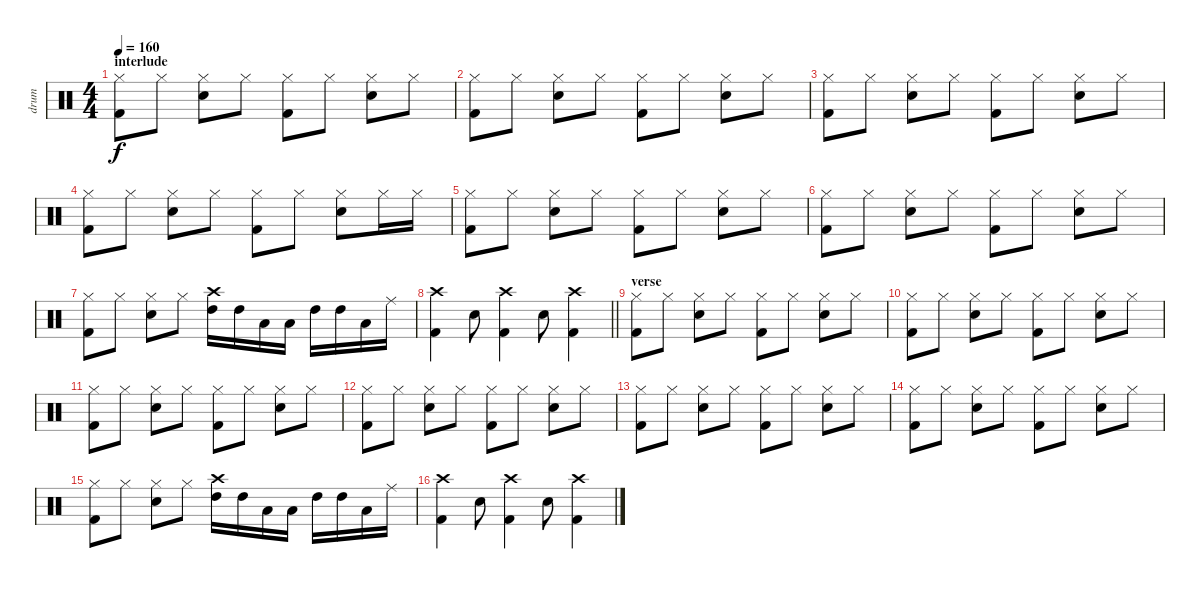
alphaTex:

\track ("drum" "drum") {instrument percussion}
\staff {score}
\articulation defaults
\ts (4 4)
\section ("" "interlude")
\tempo 160
\clef neutral
\ks c
("Hi-Hat (closed)" "Kick (hit) 2").8{dy f} "Hi-Hat (closed)".8 ("Hi-Hat (closed)" "Snare (hit) 2").8 "Hi-Hat (closed)".8 ("Hi-Hat (closed)" "Kick (hit) 2").8 "Hi-Hat (closed)".8 ("Hi-Hat (closed)" "Snare (hit) 2").8 "Hi-Hat (closed)".8 |
("Hi-Hat (closed)" "Kick (hit) 2").8 "Hi-Hat (closed)".8 ("Hi-Hat (closed)" "Snare (hit) 2").8 "Hi-Hat (closed)".8 ("Hi-Hat (closed)" "Kick (hit) 2").8 "Hi-Hat (closed)".8 ("Hi-Hat (closed)" "Snare (hit) 2").8 "Hi-Hat (closed)".8 |
("Hi-Hat (closed)" "Kick (hit) 2").8 "Hi-Hat (closed)".8 ("Hi-Hat (closed)" "Snare (hit) 2").8 "Hi-Hat (closed)".8 ("Hi-Hat (closed)" "Kick (hit) 2").8 "Hi-Hat (closed)".8 ("Hi-Hat (closed)" "Snare (hit) 2").8 "Hi-Hat (closed)".8 |
("Hi-Hat (closed)" "Kick (hit) 2").8 "Hi-Hat (closed)".8 ("Hi-Hat (closed)" "Snare (hit) 2").8 "Hi-Hat (closed)".8 ("Hi-Hat (closed)" "Kick (hit) 2").8 "Hi-Hat (closed)".8 ("Hi-Hat (closed)" "Snare (hit) 2").8 "Hi-Hat (closed)".16 "Hi-Hat (closed)".16 |
("Hi-Hat (closed)" "Kick (hit) 2").8 "Hi-Hat (closed)".8 ("Hi-Hat (closed)" "Snare (hit) 2").8 "Hi-Hat (closed)".8 ("Hi-Hat (closed)" "Kick (hit) 2").8 "Hi-Hat (closed)".8 ("Hi-Hat (closed)" "Snare (hit) 2").8 "Hi-Hat (closed)".8 |
("Hi-Hat (closed)" "Kick (hit) 2").8 "Hi-Hat (closed)".8 ("Hi-Hat (closed)" "Snare (hit) 2").8 "Hi-Hat (closed)".8 ("Hi-Hat (closed)" "Kick (hit) 2").8 "Hi-Hat (closed)".8 ("Hi-Hat (closed)" "Snare (hit) 2").8 "Hi-Hat (closed)".8 |
("Hi-Hat (closed)" "Kick (hit) 2").8 "Hi-Hat (closed)".8 ("Hi-Hat (closed)" "Snare (hit) 2").8 "Hi-Hat (closed)".8 ("Crash high (hit)" "High Tom (hit)").16 "High Tom (hit)".16 "Low Tom (hit)".16 "Low Floor Tom (hit)".16 "High Tom (hit)".16 "High Tom (hit)".16 "Low Tom (hit)".16 "Ride (middle)".16 |
\barLineRight lightlight
("Crash high (hit)" "Kick (hit) 2").4 "Snare (hit) 2".8 ("Crash high (hit)" "Kick (hit) 2").4 "Snare (hit) 2".8 ("Crash high (hit)" "Kick (hit) 2").4 |
\section ("" "verse")
("Hi-Hat (closed)" "Kick (hit) 2").8 "Hi-Hat (closed)".8 ("Hi-Hat (closed)" "Snare (hit) 2").8 "Hi-Hat (closed)".8 ("Hi-Hat (closed)" "Kick (hit) 2").8 "Hi-Hat (closed)".8 ("Hi-Hat (closed)" "Snare (hit) 2").8 "Hi-Hat (closed)".8 |
("Hi-Hat (closed)" "Kick (hit) 2").8 "Hi-Hat (closed)".8 ("Hi-Hat (closed)" "Snare (hit) 2").8 "Hi-Hat (closed)".8 ("Hi-Hat (closed)" "Kick (hit) 2").8 "Hi-Hat (closed)".8 ("Hi-Hat (closed)" "Snare (hit) 2").8 "Hi-Hat (closed)".8 |
("Hi-Hat (closed)" "Kick (hit) 2").8 "Hi-Hat (closed)".8 ("Hi-Hat (closed)" "Snare (hit) 2").8 "Hi-Hat (closed)".8 ("Hi-Hat (closed)" "Kick (hit) 2").8 "Hi-Hat (closed)".8 ("Hi-Hat (closed)" "Snare (hit) 2").8 "Hi-Hat (closed)".8 |
("Hi-Hat (closed)" "Kick (hit) 2").8 "Hi-Hat (closed)".8 ("Hi-Hat (closed)" "Snare (hit) 2").8 "Hi-Hat (closed)".8 ("Hi-Hat (closed)" "Kick (hit) 2").8 "Hi-Hat (closed)".8 ("Hi-Hat (closed)" "Snare (hit) 2").8 "Hi-Hat (closed)".8 |
("Hi-Hat (closed)" "Kick (hit) 2").8 "Hi-Hat (closed)".8 ("Hi-Hat (closed)" "Snare (hit) 2").8 "Hi-Hat (closed)".8 ("Hi-Hat (closed)" "Kick (hit) 2").8 "Hi-Hat (closed)".8 ("Hi-Hat (closed)" "Snare (hit) 2").8 "Hi-Hat (closed)".8 |
("Hi-Hat (closed)" "Kick (hit) 2").8 "Hi-Hat (closed)".8 ("Hi-Hat (closed)" "Snare (hit) 2").8 "Hi-Hat (closed)".8 ("Hi-Hat (closed)" "Kick (hit) 2").8 "Hi-Hat (closed)".8 ("Hi-Hat (closed)" "Snare (hit) 2").8 "Hi-Hat (closed)".8 |
("Hi-Hat (closed)" "Kick (hit) 2").8 "Hi-Hat (closed)".8 ("Hi-Hat (closed)" "Snare (hit) 2").8 "Hi-Hat (closed)".8 ("Crash high (hit)" "High Tom (hit)").16 "High Tom (hit)".16 "Low Tom (hit)".16 "Low Floor Tom (hit)".16 "High Tom (hit)".16 "High Tom (hit)".16 "Low Tom (hit)".16 "Ride (middle)".16 |
("Crash high (hit)" "Kick (hit) 2").4 "Snare (hit) 2".8 ("Crash high (hit)" "Kick (hit) 2").4 "Snare (hit) 2".8 ("Crash high (hit)" "Kick (hit) 2").4
